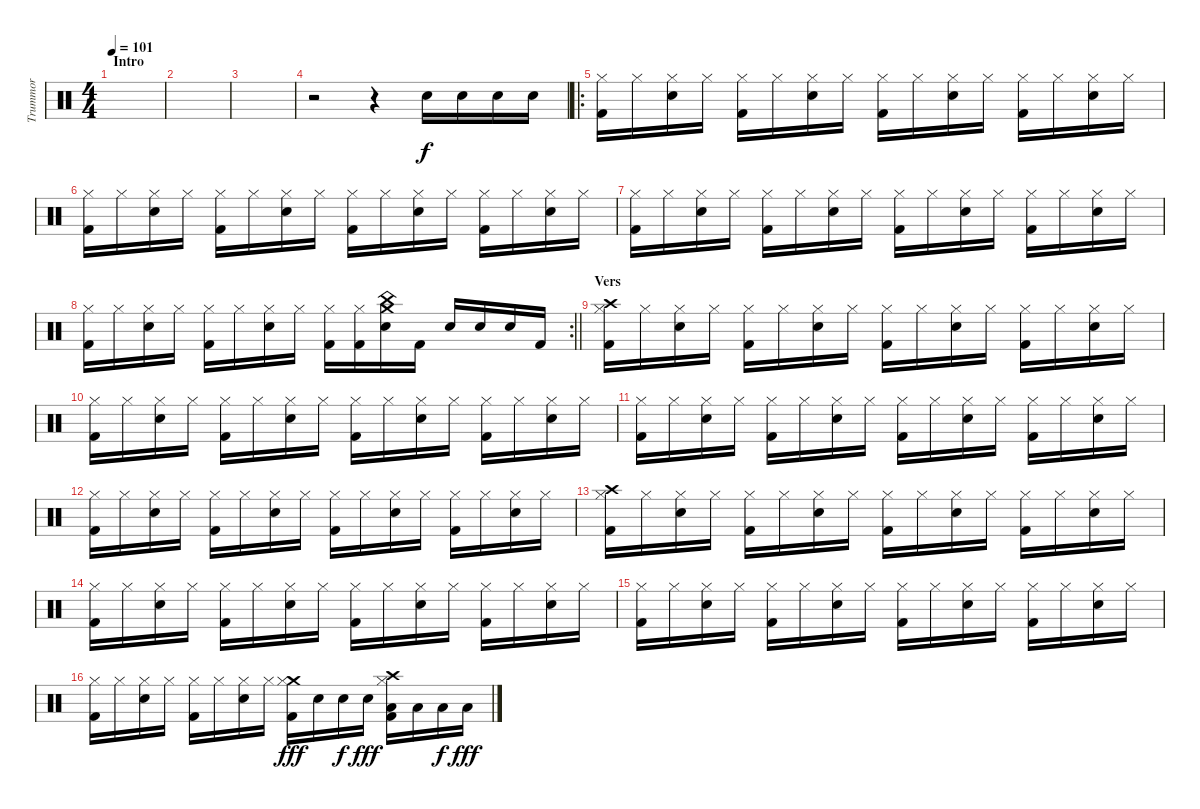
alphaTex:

\track ("Trummor" "Trummor") {instrument percussion}
\staff {score}
\articulation defaults
\ts (4 4)
\section ("" "Intro")
\tempo 101
\clef neutral
\ks c
|
|
|
r.2 r.4 "Electric Snare (hit)".16 "Electric Snare (hit)".16 "Electric Snare (hit)".16 "Electric Snare (hit)".16 |
\ro
("Hi-Hat (closed)" "Kick (hit) 2").16 "Hi-Hat (closed)".16 ("Hi-Hat (closed)" "Electric Snare (hit)").16 "Hi-Hat (closed)".16 ("Hi-Hat (closed)" "Kick (hit) 2").16 "Hi-Hat (closed)".16 ("Hi-Hat (closed)" "Electric Snare (hit)").16 "Hi-Hat (closed)".16 ("Hi-Hat (closed)" "Kick (hit) 2").16 "Hi-Hat (closed)".16 ("Hi-Hat (closed)" "Electric Snare (hit)").16 "Hi-Hat (closed)".16 ("Hi-Hat (closed)" "Kick (hit) 2").16 "Hi-Hat (closed)".16 ("Hi-Hat (closed)" "Electric Snare (hit)").16 "Hi-Hat (closed)".16 |
("Hi-Hat (closed)" "Kick (hit) 2").16 "Hi-Hat (closed)".16 ("Hi-Hat (closed)" "Electric Snare (hit)").16 "Hi-Hat (closed)".16 ("Hi-Hat (closed)" "Kick (hit) 2").16 "Hi-Hat (closed)".16 ("Hi-Hat (closed)" "Electric Snare (hit)").16 "Hi-Hat (closed)".16 ("Hi-Hat (closed)" "Kick (hit) 2").16 "Hi-Hat (closed)".16 ("Hi-Hat (closed)" "Electric Snare (hit)").16 "Hi-Hat (closed)".16 ("Hi-Hat (closed)" "Kick (hit) 2").16 "Hi-Hat (closed)".16 ("Hi-Hat (closed)" "Electric Snare (hit)").16 "Hi-Hat (closed)".16 |
("Hi-Hat (closed)" "Kick (hit) 2").16 "Hi-Hat (closed)".16 ("Hi-Hat (closed)" "Electric Snare (hit)").16 "Hi-Hat (closed)".16 ("Hi-Hat (closed)" "Kick (hit) 2").16 "Hi-Hat (closed)".16 ("Hi-Hat (closed)" "Electric Snare (hit)").16 "Hi-Hat (closed)".16 ("Hi-Hat (closed)" "Kick (hit) 2").16 "Hi-Hat (closed)".16 ("Hi-Hat (closed)" "Electric Snare (hit)").16 "Hi-Hat (closed)".16 ("Hi-Hat (closed)" "Kick (hit) 2").16 "Hi-Hat (closed)".16 ("Hi-Hat (closed)" "Electric Snare (hit)").16 "Hi-Hat (closed)".16 |
\rc 2
\barLineRight lightlight
("Hi-Hat (closed)" "Kick (hit) 2").16 "Hi-Hat (closed)".16 ("Hi-Hat (closed)" "Electric Snare (hit)").16 "Hi-Hat (closed)".16 ("Hi-Hat (closed)" "Kick (hit) 2").16 "Hi-Hat (closed)".16 ("Hi-Hat (closed)" "Electric Snare (hit)").16 "Hi-Hat (closed)".16 ("Hi-Hat (closed)" "Kick (hit) 2").16 ("Hi-Hat (closed)" "Kick (hit) 2").16 ("Crash medium (hit)" "China (hit)" "Electric Snare (hit)").16 "Kick (hit) 2".16 "Electric Snare (hit)".16 "Electric Snare (hit)".16 "Electric Snare (hit)".16 "Kick (hit) 2".16 |
\section ("" "Vers")
("Crash high (hit)" "Hi-Hat (closed)" "Kick (hit) 2").16 "Hi-Hat (closed)".16 ("Hi-Hat (closed)" "Electric Snare (hit)").16 "Hi-Hat (closed)".16 ("Hi-Hat (closed)" "Kick (hit) 2").16 "Hi-Hat (closed)".16 ("Hi-Hat (closed)" "Electric Snare (hit)").16 "Hi-Hat (closed)".16 ("Hi-Hat (closed)" "Kick (hit) 2").16 "Hi-Hat (closed)".16 ("Hi-Hat (closed)" "Electric Snare (hit)").16 "Hi-Hat (closed)".16 ("Hi-Hat (closed)" "Kick (hit) 2").16 "Hi-Hat (closed)".16 ("Hi-Hat (closed)" "Electric Snare (hit)").16 "Hi-Hat (closed)".16 |
("Hi-Hat (closed)" "Kick (hit) 2").16 "Hi-Hat (closed)".16 ("Hi-Hat (closed)" "Electric Snare (hit)").16 "Hi-Hat (closed)".16 ("Hi-Hat (closed)" "Kick (hit) 2").16 "Hi-Hat (closed)".16 ("Hi-Hat (closed)" "Electric Snare (hit)").16 "Hi-Hat (closed)".16 ("Hi-Hat (closed)" "Kick (hit) 2").16 "Hi-Hat (closed)".16 ("Hi-Hat (closed)" "Electric Snare (hit)").16 "Hi-Hat (closed)".16 ("Hi-Hat (closed)" "Kick (hit) 2").16 "Hi-Hat (closed)".16 ("Hi-Hat (closed)" "Electric Snare (hit)").16 "Hi-Hat (closed)".16 |
("Hi-Hat (closed)" "Kick (hit) 2").16 "Hi-Hat (closed)".16 ("Hi-Hat (closed)" "Electric Snare (hit)").16 "Hi-Hat (closed)".16 ("Hi-Hat (closed)" "Kick (hit) 2").16 "Hi-Hat (closed)".16 ("Hi-Hat (closed)" "Electric Snare (hit)").16 "Hi-Hat (closed)".16 ("Hi-Hat (closed)" "Kick (hit) 2").16 "Hi-Hat (closed)".16 ("Hi-Hat (closed)" "Electric Snare (hit)").16 "Hi-Hat (closed)".16 ("Hi-Hat (closed)" "Kick (hit) 2").16 "Hi-Hat (closed)".16 ("Hi-Hat (closed)" "Electric Snare (hit)").16 "Hi-Hat (closed)".16 |
("Hi-Hat (closed)" "Kick (hit) 2").16 "Hi-Hat (closed)".16 ("Hi-Hat (closed)" "Electric Snare (hit)").16 "Hi-Hat (closed)".16 ("Hi-Hat (closed)" "Kick (hit) 2").16 "Hi-Hat (closed)".16 ("Hi-Hat (closed)" "Electric Snare (hit)").16 "Hi-Hat (closed)".16 ("Hi-Hat (closed)" "Kick (hit) 2").16 "Hi-Hat (closed)".16 ("Hi-Hat (closed)" "Electric Snare (hit)").16 "Hi-Hat (closed)".16 ("Hi-Hat (closed)" "Kick (hit) 2").16 "Hi-Hat (closed)".16 ("Hi-Hat (closed)" "Electric Snare (hit)").16 "Hi-Hat (closed)".16 |
("Crash high (hit)" "Hi-Hat (closed)" "Kick (hit) 2").16 "Hi-Hat (closed)".16 ("Hi-Hat (closed)" "Electric Snare (hit)").16 "Hi-Hat (closed)".16 ("Hi-Hat (closed)" "Kick (hit) 2").16 "Hi-Hat (closed)".16 ("Hi-Hat (closed)" "Electric Snare (hit)").16 "Hi-Hat (closed)".16 ("Hi-Hat (closed)" "Kick (hit) 2").16 "Hi-Hat (closed)".16 ("Hi-Hat (closed)" "Electric Snare (hit)").16 "Hi-Hat (closed)".16 ("Hi-Hat (closed)" "Kick (hit) 2").16 "Hi-Hat (closed)".16 ("Hi-Hat (closed)" "Electric Snare (hit)").16 "Hi-Hat (closed)".16 |
("Hi-Hat (closed)" "Kick (hit) 2").16 "Hi-Hat (closed)".16 ("Hi-Hat (closed)" "Electric Snare (hit)").16 "Hi-Hat (closed)".16 ("Hi-Hat (closed)" "Kick (hit) 2").16 "Hi-Hat (closed)".16 ("Hi-Hat (closed)" "Electric Snare (hit)").16 "Hi-Hat (closed)".16 ("Hi-Hat (closed)" "Kick (hit) 2").16 "Hi-Hat (closed)".16 ("Hi-Hat (closed)" "Electric Snare (hit)").16 "Hi-Hat (closed)".16 ("Hi-Hat (closed)" "Kick (hit) 2").16 "Hi-Hat (closed)".16 ("Hi-Hat (closed)" "Electric Snare (hit)").16 "Hi-Hat (closed)".16 |
("Hi-Hat (closed)" "Kick (hit) 2").16 "Hi-Hat (closed)".16 ("Hi-Hat (closed)" "Electric Snare (hit)").16 "Hi-Hat (closed)".16 ("Hi-Hat (closed)" "Kick (hit) 2").16 "Hi-Hat (closed)".16 ("Hi-Hat (closed)" "Electric Snare (hit)").16 "Hi-Hat (closed)".16 ("Hi-Hat (closed)" "Kick (hit) 2").16 "Hi-Hat (closed)".16 ("Hi-Hat (closed)" "Electric Snare (hit)").16 "Hi-Hat (closed)".16 ("Hi-Hat (closed)" "Kick (hit) 2").16 "Hi-Hat (closed)".16 ("Hi-Hat (closed)" "Electric Snare (hit)").16 "Hi-Hat (closed)".16 |
("Hi-Hat (closed)" "Kick (hit) 2").16 "Hi-Hat (closed)".16 ("Hi-Hat (closed)" "Electric Snare (hit)").16 "Hi-Hat (closed)".16 ("Hi-Hat (closed)" "Kick (hit) 2").16 "Hi-Hat (closed)".16 ("Hi-Hat (closed)" "Electric Snare (hit)").16 "Hi-Hat (closed)".16 ("Crash medium (hit)" "Hi-Hat (closed)" "Kick (hit) 2").16{dy fff} "Electric Snare (hit)".16 "Electric Snare (hit)".16{dy f} "Electric Snare (hit)".16{dy fff} ("Crash high (hit)" "Hi-Hat (closed)" "Low Tom (hit)" "Kick (hit) 2").16 "Low Tom (hit)".16 "Low Tom (hit)".16{dy f} "Low Tom (hit)".16{dy fff}
